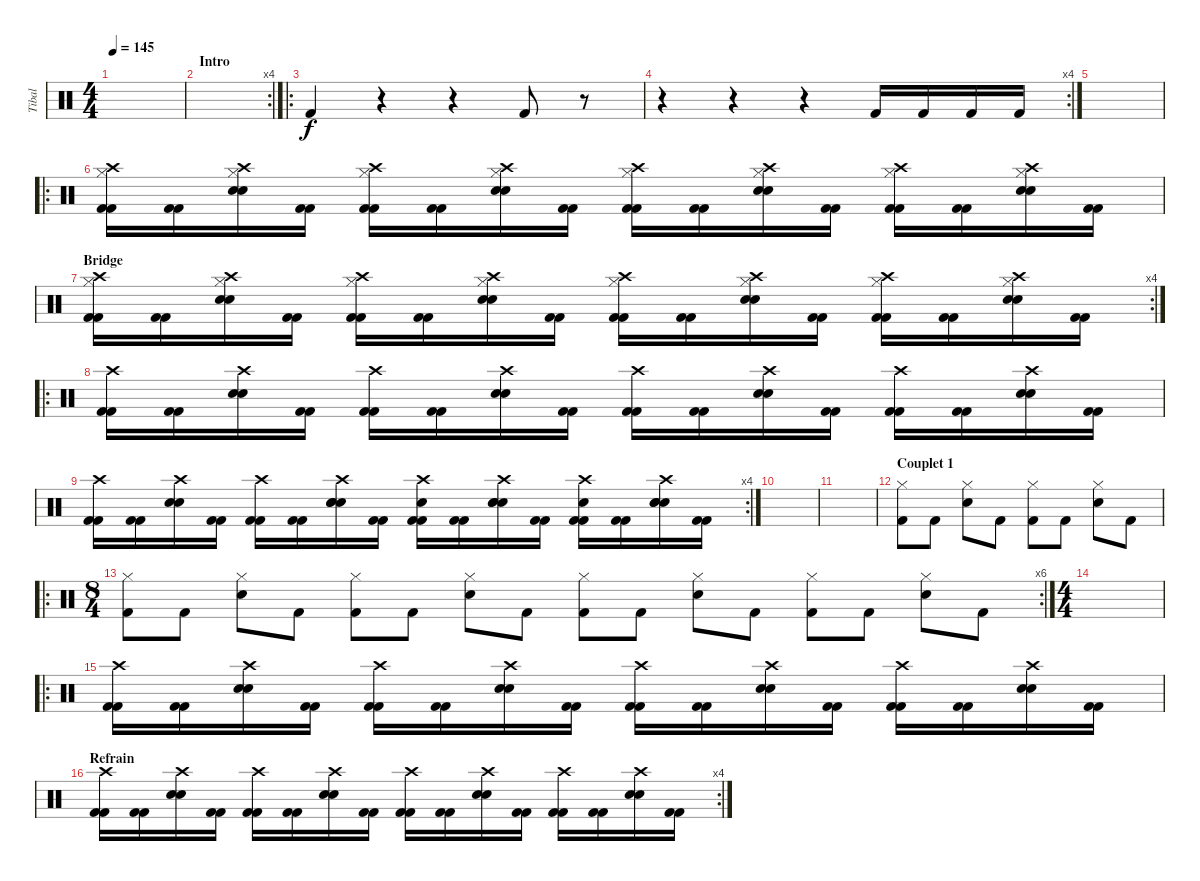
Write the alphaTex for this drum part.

\track ("Tibal" "Tibal") {instrument percussion}
\staff {score}
\articulation defaults
\ts (4 4)
\tempo 145
\clef neutral
\ks c
|
\rc 4
\section ("" "Intro")
|
\ro "Kick (hit) 2".4
r.4 r.4 "Kick (hit) 2".8 r.8 |
\rc 4
r.4 r.4 r.4 "Kick (hit) 2".16 "Kick (hit) 2".16 "Kick (hit) 2".16 "Kick (hit) 2".16 |
\section ("" "")
|
\ro
("Crash high (hit)" "Hi-Hat (closed)" "Kick (hit) 2" "Kick (hit) 2").16 ("Kick (hit) 2" "Kick (hit) 2").16 ("Crash high (hit)" "Hi-Hat (closed)" "Snare (hit) 2" "Snare (hit) 2").16 ("Kick (hit) 2" "Kick (hit) 2").16 ("Crash high (hit)" "Hi-Hat (closed)" "Kick (hit) 2" "Kick (hit) 2").16 ("Kick (hit) 2" "Kick (hit) 2").16 ("Crash high (hit)" "Hi-Hat (closed)" "Snare (hit) 2" "Snare (hit) 2").16 ("Kick (hit) 2" "Kick (hit) 2").16 ("Crash high (hit)" "Hi-Hat (closed)" "Kick (hit) 2" "Kick (hit) 2").16 ("Kick (hit) 2" "Kick (hit) 2").16 ("Crash high (hit)" "Hi-Hat (closed)" "Snare (hit) 2" "Snare (hit) 2").16 ("Kick (hit) 2" "Kick (hit) 2").16 ("Crash high (hit)" "Hi-Hat (closed)" "Kick (hit) 2" "Kick (hit) 2").16 ("Kick (hit) 2" "Kick (hit) 2").16 ("Crash high (hit)" "Hi-Hat (closed)" "Snare (hit) 2" "Snare (hit) 2").16 ("Kick (hit) 2" "Kick (hit) 2").16 |
\rc 4
\section ("" "Bridge")
("Crash high (hit)" "Hi-Hat (closed)" "Kick (hit) 2" "Kick (hit) 2").16 ("Kick (hit) 2" "Kick (hit) 2").16 ("Crash high (hit)" "Hi-Hat (closed)" "Snare (hit) 2" "Snare (hit) 2").16 ("Kick (hit) 2" "Kick (hit) 2").16 ("Crash high (hit)" "Hi-Hat (closed)" "Kick (hit) 2" "Kick (hit) 2").16 ("Kick (hit) 2" "Kick (hit) 2").16 ("Crash high (hit)" "Hi-Hat (closed)" "Snare (hit) 2" "Snare (hit) 2").16 ("Kick (hit) 2" "Kick (hit) 2").16 ("Crash high (hit)" "Hi-Hat (closed)" "Kick (hit) 2" "Kick (hit) 2").16 ("Kick (hit) 2" "Kick (hit) 2").16 ("Crash high (hit)" "Hi-Hat (closed)" "Snare (hit) 2" "Snare (hit) 2").16 ("Kick (hit) 2" "Kick (hit) 2").16 ("Crash high (hit)" "Hi-Hat (closed)" "Kick (hit) 2" "Kick (hit) 2").16 ("Kick (hit) 2" "Kick (hit) 2").16 ("Crash high (hit)" "Hi-Hat (closed)" "Snare (hit) 2" "Snare (hit) 2").16 ("Kick (hit) 2" "Kick (hit) 2").16 |
\ro
("Crash high (hit)" "Kick (hit) 2" "Kick (hit) 2").16 ("Kick (hit) 2" "Kick (hit) 2").16 ("Crash high (hit)" "Snare (hit) 2" "Snare (hit) 2").16 ("Kick (hit) 2" "Kick (hit) 2").16 ("Crash high (hit)" "Kick (hit) 2" "Kick (hit) 2").16 ("Kick (hit) 2" "Kick (hit) 2").16 ("Crash high (hit)" "Snare (hit) 2" "Snare (hit) 2").16 ("Kick (hit) 2" "Kick (hit) 2").16 ("Crash high (hit)" "Kick (hit) 2" "Kick (hit) 2").16 ("Kick (hit) 2" "Kick (hit) 2").16 ("Crash high (hit)" "Snare (hit) 2" "Snare (hit) 2").16 ("Kick (hit) 2" "Kick (hit) 2").16 ("Crash high (hit)" "Kick (hit) 2" "Kick (hit) 2").16 ("Kick (hit) 2" "Kick (hit) 2").16 ("Crash high (hit)" "Snare (hit) 2" "Snare (hit) 2").16 ("Kick (hit) 2" "Kick (hit) 2").16 |
\rc 4
("Crash high (hit)" "Kick (hit) 2" "Kick (hit) 2").16 ("Kick (hit) 2" "Kick (hit) 2").16 ("Crash high (hit)" "Snare (hit) 2" "Snare (hit) 2").16 ("Kick (hit) 2" "Kick (hit) 2").16 ("Crash high (hit)" "Kick (hit) 2" "Kick (hit) 2").16 ("Kick (hit) 2" "Kick (hit) 2").16 ("Crash high (hit)" "Snare (hit) 2" "Snare (hit) 2" "Snare (hit) 2").16 ("Kick (hit) 2" "Kick (hit) 2").16 ("Crash high (hit)" "Kick (hit) 2" "Snare (hit) 2" "Kick (hit) 2").16 ("Kick (hit) 2" "Kick (hit) 2").16 ("Crash high (hit)" "Snare (hit) 2" "Snare (hit) 2" "Snare (hit) 2").16 ("Kick (hit) 2" "Kick (hit) 2").16 ("Crash high (hit)" "Kick (hit) 2" "Snare (hit) 2" "Kick (hit) 2").16 ("Kick (hit) 2" "Kick (hit) 2").16 ("Crash high (hit)" "Snare (hit) 2" "Snare (hit) 2" "Snare (hit) 2").16 ("Kick (hit) 2" "Kick (hit) 2").16 |
|
|
\section ("" "Couplet 1")
("Hi-Hat (closed)" "Kick (hit) 2").8 "Kick (hit) 2".8 ("Hi-Hat (closed)" "Snare (hit) 2").8 "Kick (hit) 2".8 ("Hi-Hat (closed)" "Kick (hit) 2").8 "Kick (hit) 2".8 ("Hi-Hat (closed)" "Snare (hit) 2").8 "Kick (hit) 2".8 |
\ro
\rc 6
\ts (8 4)
("Hi-Hat (closed)" "Kick (hit) 2").8 "Kick (hit) 2".8 ("Hi-Hat (closed)" "Snare (hit) 2").8 "Kick (hit) 2".8 ("Hi-Hat (closed)" "Kick (hit) 2").8 "Kick (hit) 2".8 ("Hi-Hat (closed)" "Snare (hit) 2").8 "Kick (hit) 2".8 ("Hi-Hat (closed)" "Kick (hit) 2").8 "Kick (hit) 2".8 ("Hi-Hat (closed)" "Snare (hit) 2").8 "Kick (hit) 2".8 ("Hi-Hat (closed)" "Kick (hit) 2").8 "Kick (hit) 2".8 ("Hi-Hat (closed)" "Snare (hit) 2").8 "Kick (hit) 2".8 |
\ts (4 4)
|
\ro
("Crash high (hit)" "Kick (hit) 2" "Kick (hit) 2").16 ("Kick (hit) 2" "Kick (hit) 2").16 ("Crash high (hit)" "Snare (hit) 2" "Snare (hit) 2").16 ("Kick (hit) 2" "Kick (hit) 2").16 ("Crash high (hit)" "Kick (hit) 2" "Kick (hit) 2").16 ("Kick (hit) 2" "Kick (hit) 2").16 ("Crash high (hit)" "Snare (hit) 2" "Snare (hit) 2").16 ("Kick (hit) 2" "Kick (hit) 2").16 ("Crash high (hit)" "Kick (hit) 2" "Kick (hit) 2").16 ("Kick (hit) 2" "Kick (hit) 2").16 ("Crash high (hit)" "Snare (hit) 2" "Snare (hit) 2").16 ("Kick (hit) 2" "Kick (hit) 2").16 ("Crash high (hit)" "Kick (hit) 2" "Kick (hit) 2").16 ("Kick (hit) 2" "Kick (hit) 2").16 ("Crash high (hit)" "Snare (hit) 2" "Snare (hit) 2").16 ("Kick (hit) 2" "Kick (hit) 2").16 |
\rc 4
\section ("" "Refrain")
("Crash high (hit)" "Kick (hit) 2" "Kick (hit) 2").16 ("Kick (hit) 2" "Kick (hit) 2").16 ("Crash high (hit)" "Snare (hit) 2" "Snare (hit) 2").16 ("Kick (hit) 2" "Kick (hit) 2").16 ("Crash high (hit)" "Kick (hit) 2" "Kick (hit) 2").16 ("Kick (hit) 2" "Kick (hit) 2").16 ("Crash high (hit)" "Snare (hit) 2" "Snare (hit) 2").16 ("Kick (hit) 2" "Kick (hit) 2").16 ("Crash high (hit)" "Kick (hit) 2" "Kick (hit) 2").16 ("Kick (hit) 2" "Kick (hit) 2").16 ("Crash high (hit)" "Snare (hit) 2" "Snare (hit) 2").16 ("Kick (hit) 2" "Kick (hit) 2").16 ("Crash high (hit)" "Kick (hit) 2" "Kick (hit) 2").16 ("Kick (hit) 2" "Kick (hit) 2").16 ("Crash high (hit)" "Snare (hit) 2" "Snare (hit) 2").16 ("Kick (hit) 2" "Kick (hit) 2").16
